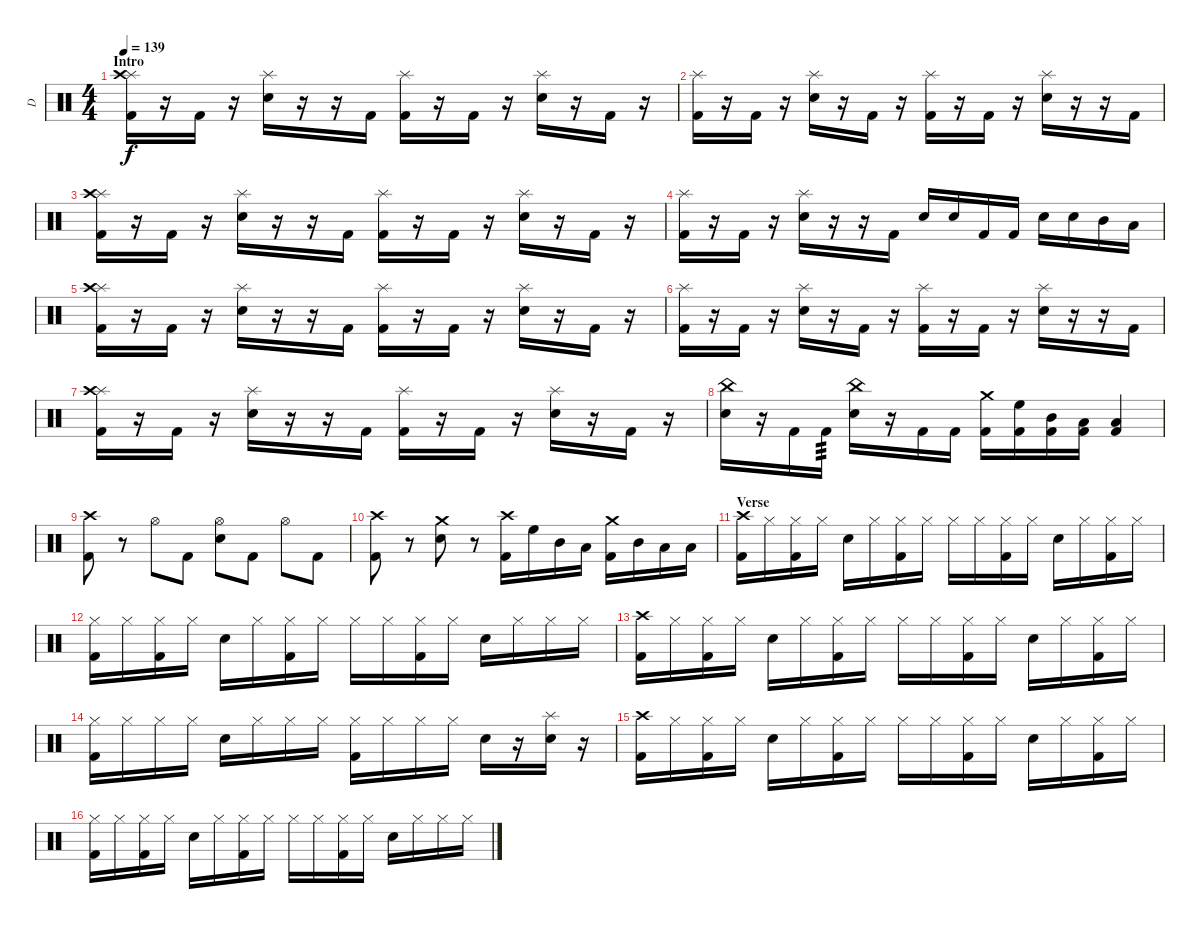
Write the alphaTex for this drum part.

\track ("D" "D") {instrument percussion}
\staff {score}
\articulation defaults
\ts (4 4)
\section ("" "Intro")
\tempo 139
\clef neutral
\ks c
("Splash (hit)" "Crash high (hit)" "Kick (hit) 2").16{dy f} r.16 "Kick (hit) 2".16 r.16 ("Splash (hit)" "Electric Snare (hit)").16 r.16 r.16 "Kick (hit) 2".16 ("Splash (hit)" "Kick (hit) 2").16 r.16 "Kick (hit) 2".16 r.16 ("Splash (hit)" "Electric Snare (hit)").16 r.16 "Kick (hit) 2".16 r.16 |
("Splash (hit)" "Kick (hit) 2").16 r.16 "Kick (hit) 2".16 r.16 ("Splash (hit)" "Electric Snare (hit)").16 r.16 "Kick (hit) 2".16 r.16 ("Splash (hit)" "Kick (hit) 2").16 r.16 "Kick (hit) 2".16 r.16 ("Splash (hit)" "Electric Snare (hit)").16 r.16 r.16 "Kick (hit) 2".16 |
("Splash (hit)" "Crash high (hit)" "Kick (hit) 2").16 r.16 "Kick (hit) 2".16 r.16 ("Splash (hit)" "Electric Snare (hit)").16 r.16 r.16 "Kick (hit) 2".16 ("Splash (hit)" "Kick (hit) 2").16 r.16 "Kick (hit) 2".16 r.16 ("Splash (hit)" "Electric Snare (hit)").16 r.16 "Kick (hit) 2".16 r.16 |
("Splash (hit)" "Kick (hit) 2").16 r.16 "Kick (hit) 2".16 r.16 ("Splash (hit)" "Electric Snare (hit)").16 r.16 r.16 "Kick (hit) 2".16 "Electric Snare (hit)".16 "Electric Snare (hit)".16 "Kick (hit) 2".16 "Kick (hit) 2".16 "Electric Snare (hit)".16 "Electric Snare (hit)".16 "Mid Tom (hit)".16 "Low Tom (hit)".16 |
("Splash (hit)" "Crash high (hit)" "Kick (hit) 2").16 r.16 "Kick (hit) 2".16 r.16 ("Splash (hit)" "Electric Snare (hit)").16 r.16 r.16 "Kick (hit) 2".16 ("Splash (hit)" "Kick (hit) 2").16 r.16 "Kick (hit) 2".16 r.16 ("Splash (hit)" "Electric Snare (hit)").16 r.16 "Kick (hit) 2".16 r.16 |
("Splash (hit)" "Kick (hit) 2").16 r.16 "Kick (hit) 2".16 r.16 ("Splash (hit)" "Electric Snare (hit)").16 r.16 "Kick (hit) 2".16 r.16 ("Splash (hit)" "Kick (hit) 2").16 r.16 "Kick (hit) 2".16 r.16 ("Splash (hit)" "Electric Snare (hit)").16 r.16 r.16 "Kick (hit) 2".16 |
("Splash (hit)" "Crash high (hit)" "Kick (hit) 2").16 r.16 "Kick (hit) 2".16 r.16 ("Splash (hit)" "Electric Snare (hit)").16 r.16 r.16 "Kick (hit) 2".16 ("Splash (hit)" "Kick (hit) 2").16 r.16 "Kick (hit) 2".16 r.16 ("Splash (hit)" "Electric Snare (hit)").16 r.16 "Kick (hit) 2".16 r.16 |
("China (hit)" "Electric Snare (hit)").16 r.16 "Kick (hit) 2".16 "Kick (hit) 2".16{tp 3} ("China (hit)" "Electric Snare (hit)").16 r.16 "Kick (hit) 2".16 "Kick (hit) 2".16 ("Crash medium (hit)" "Kick (hit) 2").16 ("High Floor Tom (hit)" "Kick (hit) 2").16 ("Mid Tom (hit)" "Kick (hit) 2").16 ("Low Tom (hit)" "Kick (hit) 2").16 ("Low Floor Tom (hit)" "Kick (hit) 2").4 |
("Crash high (hit)" "Kick (hit) 2").8 r.8 "Hi-Hat (open)".8 "Kick (hit) 2".8 ("Hi-Hat (open)" "Electric Snare (hit)").8 "Kick (hit) 2".8 "Hi-Hat (open)".8 "Kick (hit) 2".8 |
("Crash high (hit)" "Kick (hit) 2").8 r.8 ("Crash medium (hit)" "Electric Snare (hit)").8 r.8 ("Crash high (hit)" "Kick (hit) 2").16 "High Floor Tom (hit)".16 "Mid Tom (hit)".16 "Low Tom (hit)".16 ("Crash medium (hit)" "Kick (hit) 2").16 "Mid Tom (hit)".16 "Low Tom (hit)".16 "Low Floor Tom (hit)".16 |
\section ("" "Verse")
("Crash high (hit)" "Kick (hit) 2").16 "Hi-Hat (closed)".16 ("Hi-Hat (closed)" "Kick (hit) 2").16 "Hi-Hat (closed)".16 "Electric Snare (hit)".16 "Hi-Hat (closed)".16 ("Hi-Hat (closed)" "Kick (hit) 2").16 "Hi-Hat (closed)".16 "Hi-Hat (closed)".16 "Hi-Hat (closed)".16 ("Hi-Hat (closed)" "Kick (hit) 2").16 "Hi-Hat (closed)".16 "Electric Snare (hit)".16 "Hi-Hat (closed)".16 ("Hi-Hat (closed)" "Kick (hit) 2").16 "Hi-Hat (closed)".16 |
("Hi-Hat (closed)" "Kick (hit) 2").16 "Hi-Hat (closed)".16 ("Hi-Hat (closed)" "Kick (hit) 2").16 "Hi-Hat (closed)".16 "Electric Snare (hit)".16 "Hi-Hat (closed)".16 ("Hi-Hat (closed)" "Kick (hit) 2").16 "Hi-Hat (closed)".16 "Hi-Hat (closed)".16 "Hi-Hat (closed)".16 ("Hi-Hat (closed)" "Kick (hit) 2").16 "Hi-Hat (closed)".16 "Electric Snare (hit)".16 "Hi-Hat (closed)".16 "Hi-Hat (closed)".16 "Hi-Hat (closed)".16 |
("Crash high (hit)" "Kick (hit) 2").16 "Hi-Hat (closed)".16 ("Hi-Hat (closed)" "Kick (hit) 2").16 "Hi-Hat (closed)".16 "Electric Snare (hit)".16 "Hi-Hat (closed)".16 ("Hi-Hat (closed)" "Kick (hit) 2").16 "Hi-Hat (closed)".16 "Hi-Hat (closed)".16 "Hi-Hat (closed)".16 ("Hi-Hat (closed)" "Kick (hit) 2").16 "Hi-Hat (closed)".16 "Electric Snare (hit)".16 "Hi-Hat (closed)".16 ("Hi-Hat (closed)" "Kick (hit) 2").16 "Hi-Hat (closed)".16 |
("Hi-Hat (closed)" "Kick (hit) 2").16 "Hi-Hat (closed)".16 "Hi-Hat (closed)".16 "Hi-Hat (closed)".16 "Electric Snare (hit)".16 "Hi-Hat (closed)".16 "Hi-Hat (closed)".16 "Hi-Hat (closed)".16 ("Hi-Hat (closed)" "Kick (hit) 2").16 "Hi-Hat (closed)".16 "Hi-Hat (closed)".16 "Hi-Hat (closed)".16 "Electric Snare (hit)".16 r.16 ("Splash (hit)" "Electric Snare (hit)").16 r.16 |
("Crash high (hit)" "Kick (hit) 2").16 "Hi-Hat (closed)".16 ("Hi-Hat (closed)" "Kick (hit) 2").16 "Hi-Hat (closed)".16 "Electric Snare (hit)".16 "Hi-Hat (closed)".16 ("Hi-Hat (closed)" "Kick (hit) 2").16 "Hi-Hat (closed)".16 "Hi-Hat (closed)".16 "Hi-Hat (closed)".16 ("Hi-Hat (closed)" "Kick (hit) 2").16 "Hi-Hat (closed)".16 "Electric Snare (hit)".16 "Hi-Hat (closed)".16 ("Hi-Hat (closed)" "Kick (hit) 2").16 "Hi-Hat (closed)".16 |
("Hi-Hat (closed)" "Kick (hit) 2").16 "Hi-Hat (closed)".16 ("Hi-Hat (closed)" "Kick (hit) 2").16 "Hi-Hat (closed)".16 "Electric Snare (hit)".16 "Hi-Hat (closed)".16 ("Hi-Hat (closed)" "Kick (hit) 2").16 "Hi-Hat (closed)".16 "Hi-Hat (closed)".16 "Hi-Hat (closed)".16 ("Hi-Hat (closed)" "Kick (hit) 2").16 "Hi-Hat (closed)".16 "Electric Snare (hit)".16 "Hi-Hat (closed)".16 "Hi-Hat (closed)".16 "Hi-Hat (closed)".16
